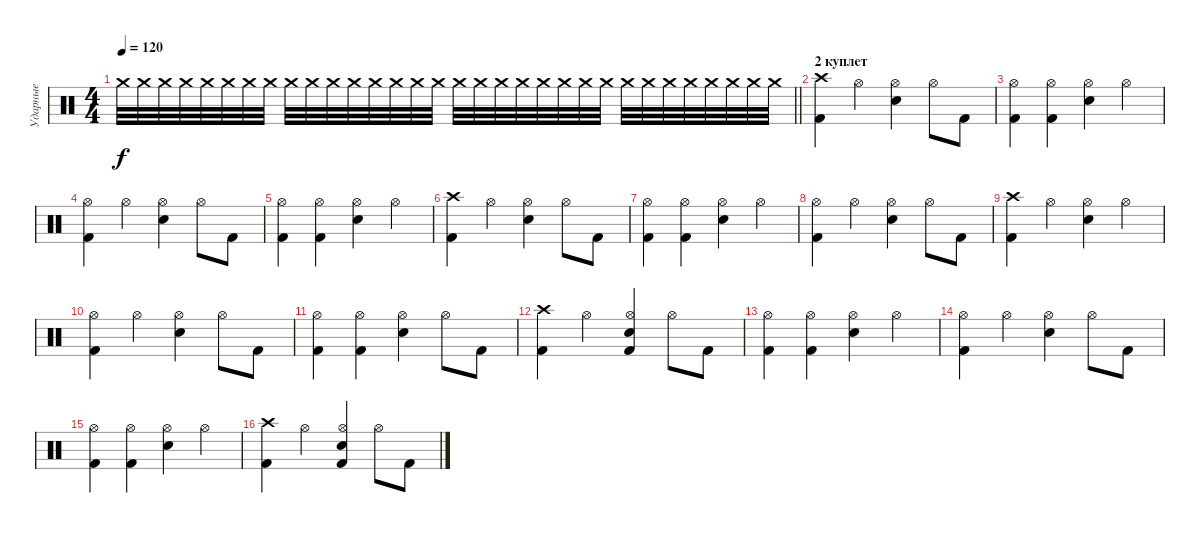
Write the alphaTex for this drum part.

\track ("Ударные" "Ударные") {instrument percussion}
\staff {score}
\articulation defaults
\ts (4 4)
\tempo 120
\clef neutral
\barLineRight lightlight
\ks c "Crash medium (hit)".32{dy f} "Crash medium (hit)".32 "Crash medium (hit)".32 "Crash medium (hit)".32{volume 10} "Crash medium (hit)".32 "Crash medium (hit)".32 "Crash medium (hit)".32 "Crash medium (hit)".32{volume 10} "Crash medium (hit)".32 "Crash medium (hit)".32 "Crash medium (hit)".32 "Crash medium (hit)".32{volume 13} "Crash medium (hit)".32 "Crash medium (hit)".32 "Crash medium (hit)".32 "Crash medium (hit)".32 "Crash medium (hit)".32 "Crash medium (hit)".32 "Crash medium (hit)".32{volume 10} "Crash medium (hit)".32 "Crash medium (hit)".32 "Crash medium (hit)".32 "Crash medium (hit)".32{volume 10} "Crash medium (hit)".32 "Crash medium (hit)".32 "Crash medium (hit)".32 "Crash medium (hit)".32{volume 13} "Crash medium (hit)".32 "Crash medium (hit)".32 "Crash medium (hit)".32 "Crash medium (hit)".32{volume 16} "Crash medium (hit)".32{volume 16}
|
\section ("" "2 куплет")
("Kick (hit) 2" "Crash high (hit)").4{volume 16} "Hi-Hat (open)".4 ("Snare (hit) 2" "Hi-Hat (open)").4 "Hi-Hat (open)".8 "Kick (hit) 2".8 |
("Kick (hit) 2" "Hi-Hat (open)").4 ("Kick (hit) 2" "Hi-Hat (open)").4 ("Snare (hit) 2" "Hi-Hat (open)").4 "Hi-Hat (open)".4 |
("Hi-Hat (open)" "Kick (hit) 2").4 "Hi-Hat (open)".4 ("Snare (hit) 2" "Hi-Hat (open)").4 "Hi-Hat (open)".8 "Kick (hit) 2".8 |
("Kick (hit) 2" "Hi-Hat (open)").4 ("Kick (hit) 2" "Hi-Hat (open)").4 ("Snare (hit) 2" "Hi-Hat (open)").4 "Hi-Hat (open)".4 |
("Kick (hit) 2" "Crash high (hit)").4 "Hi-Hat (open)".4 ("Snare (hit) 2" "Hi-Hat (open)").4 "Hi-Hat (open)".8 "Kick (hit) 2".8 |
("Kick (hit) 2" "Hi-Hat (open)").4 ("Kick (hit) 2" "Hi-Hat (open)").4 ("Snare (hit) 2" "Hi-Hat (open)").4 "Hi-Hat (open)".4 |
("Hi-Hat (open)" "Kick (hit) 2").4 "Hi-Hat (open)".4 ("Snare (hit) 2" "Hi-Hat (open)").4 "Hi-Hat (open)".8 "Kick (hit) 2".8 |
("Kick (hit) 2" "Crash high (hit)").4 "Hi-Hat (open)".4 ("Snare (hit) 2" "Hi-Hat (open)").4 "Hi-Hat (open)".4 |
("Kick (hit) 2" "Hi-Hat (open)").4 "Hi-Hat (open)".4 ("Snare (hit) 2" "Hi-Hat (open)").4 "Hi-Hat (open)".8 "Kick (hit) 2".8 |
("Hi-Hat (open)" "Kick (hit) 2").4 ("Hi-Hat (open)" "Kick (hit) 2").4 ("Snare (hit) 2" "Hi-Hat (open)").4 "Hi-Hat (open)".8 "Kick (hit) 2".8 |
("Kick (hit) 2" "Crash high (hit)").4 "Hi-Hat (open)".4 ("Kick (hit) 2" "Snare (hit) 2" "Hi-Hat (open)").4 "Hi-Hat (open)".8 "Kick (hit) 2".8 |
("Kick (hit) 2" "Hi-Hat (open)").4 ("Kick (hit) 2" "Hi-Hat (open)").4 ("Snare (hit) 2" "Hi-Hat (open)").4 "Hi-Hat (open)".4 |
("Hi-Hat (open)" "Kick (hit) 2").4 "Hi-Hat (open)".4 ("Snare (hit) 2" "Hi-Hat (open)").4 "Hi-Hat (open)".8 "Kick (hit) 2".8 |
("Kick (hit) 2" "Hi-Hat (open)").4 ("Kick (hit) 2" "Hi-Hat (open)").4 ("Snare (hit) 2" "Hi-Hat (open)").4 "Hi-Hat (open)".4 |
("Kick (hit) 2" "Crash high (hit)").4 "Hi-Hat (open)".4 ("Kick (hit) 2" "Snare (hit) 2" "Hi-Hat (open)").4 "Hi-Hat (open)".8 "Kick (hit) 2".8
